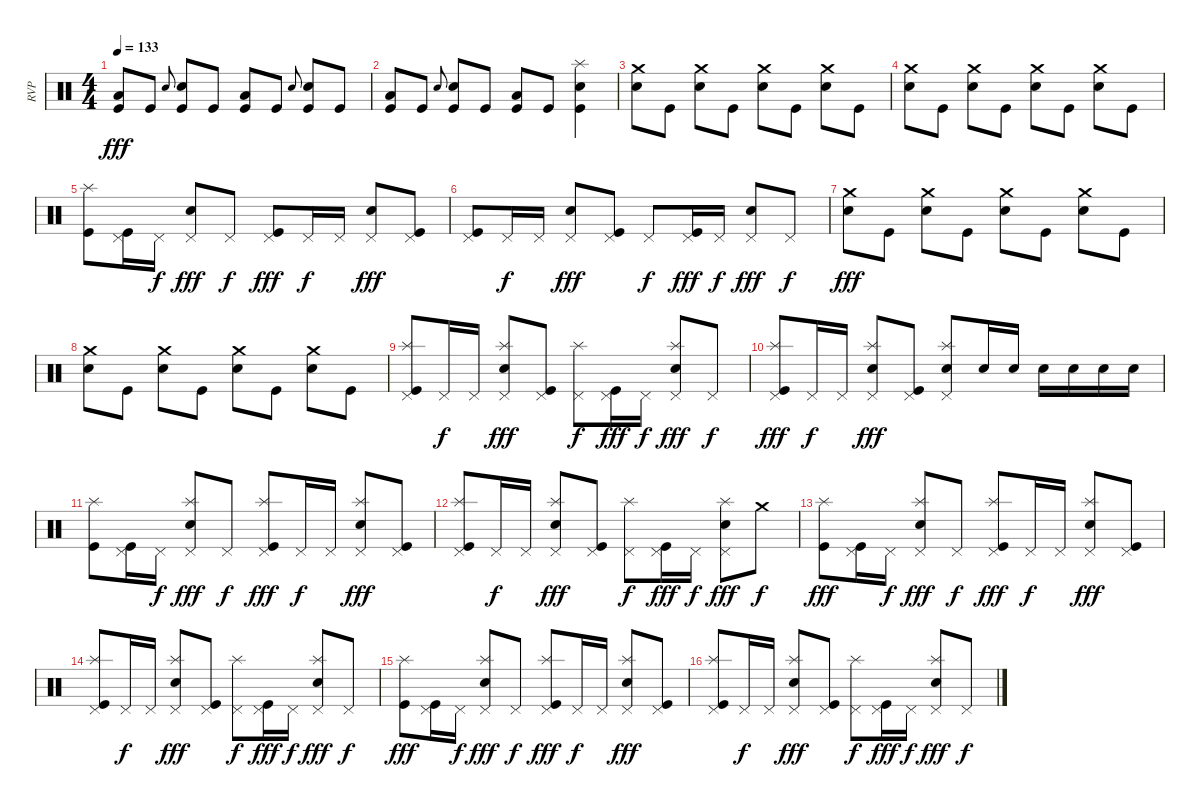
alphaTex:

\track ("RVP" "RVP") {instrument percussion}
\staff {score}
\articulation defaults
\ts (4 4)
\tempo 133
\clef neutral
\ks c
("Low Floor Tom (hit)" "Kick (hit)").8{txt "" dy fff} "Kick (hit)".8{txt ""} "Snare (hit) 2".8{gr onbeat} ("Snare (hit) 2" "Kick (hit)").8{txt ""} "Kick (hit)".8{txt ""} ("Low Floor Tom (hit)" "Kick (hit)").8{txt ""} "Kick (hit)".8{txt ""} "Snare (hit) 2".8{gr onbeat} ("Snare (hit) 2" "Kick (hit)").8{txt ""} "Kick (hit)".8{txt ""} |
("Low Floor Tom (hit)" "Kick (hit)").8{txt ""} "Kick (hit)".8{txt ""} "Snare (hit) 2".8{gr onbeat} ("Snare (hit) 2" "Kick (hit)").8{txt ""} "Kick (hit)".8{txt ""} ("Low Floor Tom (hit)" "Kick (hit)").8{txt ""} "Kick (hit)".8{txt ""} ("Snare (hit) 2" "Splash (hit)" "Kick (hit)").4{txt ""} |
("Snare (hit) 2" "Crash medium (hit)").8{txt ""} "Kick (hit)".8{txt ""} ("Snare (hit) 2" "Crash medium (hit)").8{txt ""} "Kick (hit)".8{txt ""} ("Snare (hit) 2" "Crash medium (hit)").8{txt ""} "Kick (hit)".8{txt ""} ("Snare (hit) 2" "Crash medium (hit)").8{txt ""} "Kick (hit)".8{txt ""} |
("Snare (hit) 2" "Crash medium (hit)").8{txt ""} "Kick (hit)".8{txt ""} ("Snare (hit) 2" "Crash medium (hit)").8{txt ""} "Kick (hit)".8{txt ""} ("Snare (hit) 2" "Crash medium (hit)").8{txt ""} "Kick (hit)".8{txt ""} ("Snare (hit) 2" "Crash medium (hit)").8{txt ""} "Kick (hit)".8{txt ""} |
("Splash (hit)" "Kick (hit)").8{txt ""} ("Pedal Hi-Hat (hit)" "Kick (hit)").16{txt ""} "Pedal Hi-Hat (hit)".16{txt "" dy f} ("Snare (hit) 2" "Pedal Hi-Hat (hit)").8{txt "" dy fff} "Pedal Hi-Hat (hit)".8{txt "" dy f} ("Pedal Hi-Hat (hit)" "Kick (hit)").8{txt "" dy fff} "Pedal Hi-Hat (hit)".16{txt "" dy f} "Pedal Hi-Hat (hit)".16{txt ""} ("Snare (hit) 2" "Pedal Hi-Hat (hit)").8{txt "" dy fff} ("Pedal Hi-Hat (hit)" "Kick (hit)").8{txt ""} |
("Pedal Hi-Hat (hit)" "Kick (hit)").8{txt ""} "Pedal Hi-Hat (hit)".16{txt "" dy f} "Pedal Hi-Hat (hit)".16{txt ""} ("Snare (hit) 2" "Pedal Hi-Hat (hit)").8{txt "" dy fff} ("Pedal Hi-Hat (hit)" "Kick (hit)").8{txt ""} "Pedal Hi-Hat (hit)".8{txt "" dy f} ("Pedal Hi-Hat (hit)" "Kick (hit)").16{txt "" dy fff} "Pedal Hi-Hat (hit)".16{txt "" dy f} ("Snare (hit) 2" "Pedal Hi-Hat (hit)").8{txt "" dy fff} "Pedal Hi-Hat (hit)".8{txt "" dy f} |
("Snare (hit) 2" "Crash medium (hit)").8{txt "" dy fff} "Kick (hit)".8{txt ""} ("Snare (hit) 2" "Crash medium (hit)").8{txt ""} "Kick (hit)".8{txt ""} ("Snare (hit) 2" "Crash medium (hit)").8{txt ""} "Kick (hit)".8{txt ""} ("Snare (hit) 2" "Crash medium (hit)").8{txt ""} "Kick (hit)".8{txt ""} |
("Snare (hit) 2" "Crash medium (hit)").8{txt ""} "Kick (hit)".8{txt ""} ("Snare (hit) 2" "Crash medium (hit)").8{txt ""} "Kick (hit)".8{txt ""} ("Snare (hit) 2" "Crash medium (hit)").8{txt ""} "Kick (hit)".8{txt ""} ("Snare (hit) 2" "Crash medium (hit)").8{txt ""} "Kick (hit)".8{txt ""} |
("Pedal Hi-Hat (hit)" "Splash (hit)" "Kick (hit)").8{txt ""} "Pedal Hi-Hat (hit)".16{txt "" dy f} "Pedal Hi-Hat (hit)".16{txt ""} ("Snare (hit) 2" "Pedal Hi-Hat (hit)" "Splash (hit)").8{txt "" dy fff} ("Pedal Hi-Hat (hit)" "Kick (hit)").8{txt ""} ("Pedal Hi-Hat (hit)" "Splash (hit)").8{txt "" dy f} ("Pedal Hi-Hat (hit)" "Kick (hit)").16{txt "" dy fff} "Pedal Hi-Hat (hit)".16{txt "" dy f} ("Snare (hit) 2" "Pedal Hi-Hat (hit)" "Splash (hit)").8{txt "" dy fff} "Pedal Hi-Hat (hit)".8{txt "" dy f} |
("Pedal Hi-Hat (hit)" "Splash (hit)" "Kick (hit)").8{txt "" dy fff} "Pedal Hi-Hat (hit)".16{txt "" dy f} "Pedal Hi-Hat (hit)".16{txt ""} ("Snare (hit) 2" "Pedal Hi-Hat (hit)" "Splash (hit)").8{txt "" dy fff} ("Pedal Hi-Hat (hit)" "Kick (hit)").8{txt ""} ("Snare (hit) 2" "Pedal Hi-Hat (hit)" "Splash (hit)").8{txt ""} "Snare (hit) 2".16{txt ""} "Snare (hit) 2".16{txt ""} "Snare (hit) 2".16{txt ""} "Snare (hit) 2".16{txt ""} "Snare (hit) 2".16{txt ""} "Snare (hit) 2".16{txt ""} |
("Splash (hit)" "Kick (hit)").8{txt ""} ("Pedal Hi-Hat (hit)" "Kick (hit)").16{txt ""} "Pedal Hi-Hat (hit)".16{txt "" dy f} ("Snare (hit) 2" "Pedal Hi-Hat (hit)" "Splash (hit)").8{txt "" dy fff} "Pedal Hi-Hat (hit)".8{txt "" dy f} ("Pedal Hi-Hat (hit)" "Splash (hit)" "Kick (hit)").8{txt "" dy fff} "Pedal Hi-Hat (hit)".16{txt "" dy f} "Pedal Hi-Hat (hit)".16{txt ""} ("Snare (hit) 2" "Pedal Hi-Hat (hit)" "Splash (hit)").8{txt "" dy fff} ("Pedal Hi-Hat (hit)" "Kick (hit)").8{txt ""} |
("Pedal Hi-Hat (hit)" "Splash (hit)" "Kick (hit)").8{txt ""} "Pedal Hi-Hat (hit)".16{txt "" dy f} "Pedal Hi-Hat (hit)".16{txt ""} ("Snare (hit) 2" "Pedal Hi-Hat (hit)" "Splash (hit)").8{txt "" dy fff} ("Pedal Hi-Hat (hit)" "Kick (hit)").8{txt ""} ("Pedal Hi-Hat (hit)" "Splash (hit)").8{txt "" dy f} ("Pedal Hi-Hat (hit)" "Kick (hit)").16{txt "" dy fff} "Pedal Hi-Hat (hit)".16{txt "" dy f} ("Snare (hit) 2" "Pedal Hi-Hat (hit)" "Splash (hit)").8{txt "" dy fff} "Crash medium (hit)".8{txt "" dy f} |
("Splash (hit)" "Kick (hit)").8{txt "" dy fff} ("Pedal Hi-Hat (hit)" "Kick (hit)").16{txt ""} "Pedal Hi-Hat (hit)".16{txt "" dy f} ("Snare (hit) 2" "Pedal Hi-Hat (hit)" "Splash (hit)").8{txt "" dy fff} "Pedal Hi-Hat (hit)".8{txt "" dy f} ("Pedal Hi-Hat (hit)" "Splash (hit)" "Kick (hit)").8{txt "" dy fff} "Pedal Hi-Hat (hit)".16{txt "" dy f} "Pedal Hi-Hat (hit)".16{txt ""} ("Snare (hit) 2" "Pedal Hi-Hat (hit)" "Splash (hit)").8{txt "" dy fff} ("Pedal Hi-Hat (hit)" "Kick (hit)").8{txt ""} |
("Pedal Hi-Hat (hit)" "Splash (hit)" "Kick (hit)").8{txt ""} "Pedal Hi-Hat (hit)".16{txt "" dy f} "Pedal Hi-Hat (hit)".16{txt ""} ("Snare (hit) 2" "Pedal Hi-Hat (hit)" "Splash (hit)").8{txt "" dy fff} ("Pedal Hi-Hat (hit)" "Kick (hit)").8{txt ""} ("Pedal Hi-Hat (hit)" "Splash (hit)").8{txt "" dy f} ("Pedal Hi-Hat (hit)" "Kick (hit)").16{txt "" dy fff} "Pedal Hi-Hat (hit)".16{txt "" dy f} ("Snare (hit) 2" "Pedal Hi-Hat (hit)" "Splash (hit)").8{txt "" dy fff} "Pedal Hi-Hat (hit)".8{txt "" dy f} |
("Splash (hit)" "Kick (hit)").8{txt "" dy fff} ("Pedal Hi-Hat (hit)" "Kick (hit)").16{txt ""} "Pedal Hi-Hat (hit)".16{txt "" dy f} ("Snare (hit) 2" "Pedal Hi-Hat (hit)" "Splash (hit)").8{txt "" dy fff} "Pedal Hi-Hat (hit)".8{txt "" dy f} ("Pedal Hi-Hat (hit)" "Splash (hit)" "Kick (hit)").8{txt "" dy fff} "Pedal Hi-Hat (hit)".16{txt "" dy f} "Pedal Hi-Hat (hit)".16{txt ""} ("Snare (hit) 2" "Pedal Hi-Hat (hit)" "Splash (hit)").8{txt "" dy fff} ("Pedal Hi-Hat (hit)" "Kick (hit)").8{txt ""} |
("Pedal Hi-Hat (hit)" "Splash (hit)" "Kick (hit)").8{txt ""} "Pedal Hi-Hat (hit)".16{txt "" dy f} "Pedal Hi-Hat (hit)".16{txt ""} ("Snare (hit) 2" "Pedal Hi-Hat (hit)" "Splash (hit)").8{txt "" dy fff} ("Pedal Hi-Hat (hit)" "Kick (hit)").8{txt ""} ("Pedal Hi-Hat (hit)" "Splash (hit)").8{txt "" dy f} ("Pedal Hi-Hat (hit)" "Kick (hit)").16{txt "" dy fff} "Pedal Hi-Hat (hit)".16{txt "" dy f} ("Snare (hit) 2" "Pedal Hi-Hat (hit)" "Splash (hit)").8{txt "" dy fff} "Pedal Hi-Hat (hit)".8{txt "" dy f}
